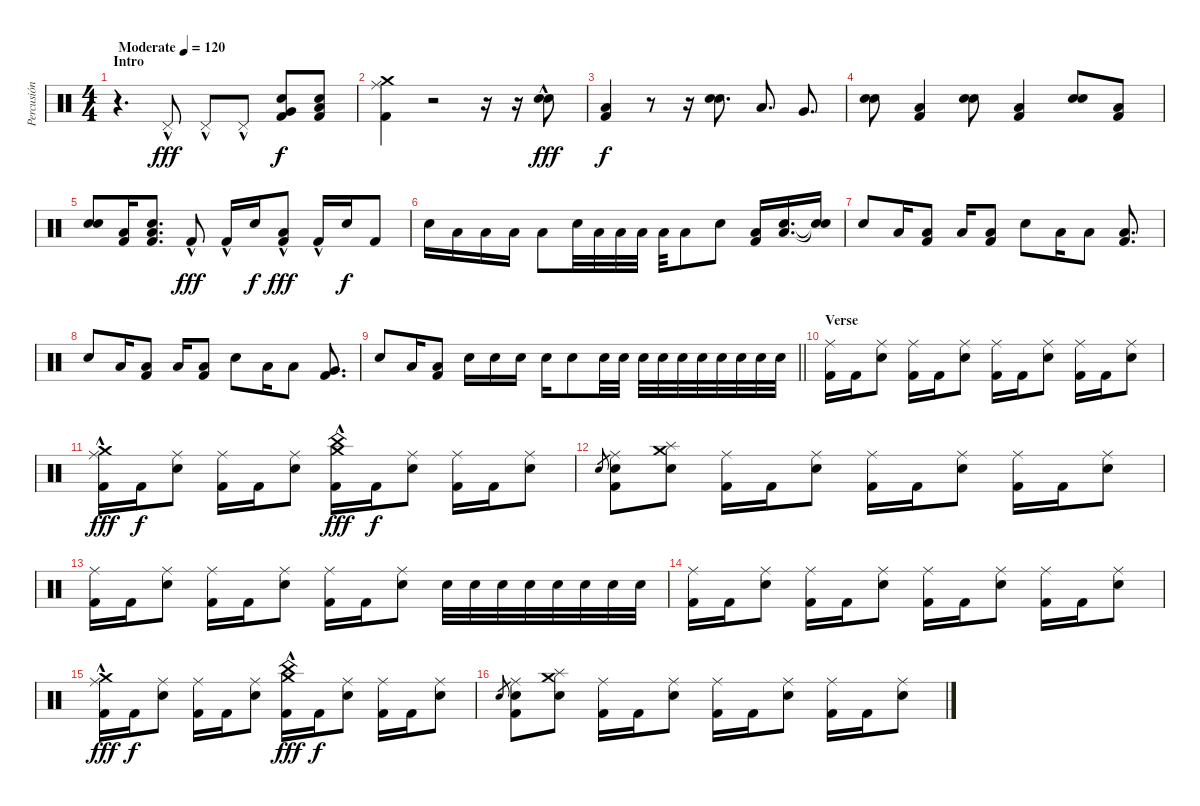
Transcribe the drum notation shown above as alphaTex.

\track ("Percusión" "Percusión") {instrument percussion}
\staff {score}
\articulation defaults
\ts (4 4)
\section ("" "Intro")
\tempo (120 "Moderate")
\clef neutral
\ks c
r.4{d dy fff} "Pedal Hi-Hat (hit)"{hac}.8 "Pedal Hi-Hat (hit)"{hac}.8 "Pedal Hi-Hat (hit)"{hac}.8 ("Very Low Tom (hit)" "Snare (hit) 2" "Kick (hit) 2").8{dy f} ("Low Tom (hit)" "Electric Snare (hit)" "Kick (hit) 2").8 |
("Ride (middle)" "Crash medium (hit)" "Kick (hit) 2").4 r.2 r.16 r.16 ("Electric Snare (hit)"{hac} "Snare (hit) 2").8{dy fff} |
("Low Tom (hit)" "Kick (hit) 2").4{dy f} r.8 r.16 ("Electric Snare (hit)" "Snare (hit) 2").8{d} "Low Floor Tom (hit)".8{d} "Very Low Tom (hit)".8{d} |
("Snare (hit) 2" "Electric Snare (hit)").8 ("Low Tom (hit)" "Kick (hit) 2").4 ("Snare (hit) 2" "Electric Snare (hit)").8 ("Low Tom (hit)" "Kick (hit) 2").4 ("Snare (hit) 2" "Electric Snare (hit)").8 ("Low Tom (hit)" "Kick (hit) 2").8 |
("Electric Snare (hit)" "Snare (hit) 2").8 ("Low Tom (hit)" "Kick (hit) 2").16 ("Low Floor Tom (hit)" "Electric Snare (hit)" "Kick (hit) 2").8{d} "Kick (hit) 2"{hac}.8{dy fff} "Kick (hit) 2"{hac}.16 "Electric Snare (hit)".16{dy f} ("Low Tom (hit)" "Kick (hit) 2"{hac}).8{dy fff} "Kick (hit) 2"{hac}.16 "Electric Snare (hit)".16{dy f} "Kick (hit) 2".8 |
"Electric Snare (hit)".16 "Low Tom (hit)".16 "Low Tom (hit)".16 "Low Tom (hit)".16 "Low Tom (hit)".8 "Electric Snare (hit)".32 "Low Tom (hit)".32 "Low Tom (hit)".32 "Low Tom (hit)".32 "Low Tom (hit)".32 "Low Tom (hit)".8 "Electric Snare (hit)".8 ("Low Tom (hit)" "Kick (hit) 2").16 ("Electric Snare (hit)" "Low Tom (hit)").16{d} ("Snare (hit)"{t} "Snare (hit)"{t}).16 |
"Electric Snare (hit)".8 "Low Tom (hit)".16 ("Low Tom (hit)" "Kick (hit) 2").8 "Low Tom (hit)".16 ("Low Tom (hit)" "Kick (hit) 2").8 "Electric Snare (hit)".8 "Low Tom (hit)".16 "Low Tom (hit)".8 ("Low Floor Tom (hit)" "Kick (hit) 2").8{d} |
"Electric Snare (hit)".8 "Low Tom (hit)".16 ("Low Tom (hit)" "Kick (hit) 2").8 "Low Tom (hit)".16 ("Low Tom (hit)" "Kick (hit) 2").8 "Electric Snare (hit)".8 "Low Tom (hit)".16 "Low Tom (hit)".8 ("Very Low Tom (hit)" "Kick (hit) 2").8{d} |
\barLineRight lightlight "Electric Snare (hit)".8 "Low Tom (hit)".16
("Low Tom (hit)" "Kick (hit) 2").8 "Electric Snare (hit)".16 "Electric Snare (hit)".16 "Electric Snare (hit)".16 "Electric Snare (hit)".16 "Electric Snare (hit)".8 "Electric Snare (hit)".32 "Electric Snare (hit)".32 "Electric Snare (hit)".32 "Electric Snare (hit)".32 "Electric Snare (hit)".32 "Electric Snare (hit)".32 "Electric Snare (hit)".32 "Electric Snare (hit)".32 "Electric Snare (hit)".32 "Electric Snare (hit)".32 |
\section ("" "Verse")
("Ride (middle)" "Kick (hit) 2").16 "Kick (hit) 2".16 ("Ride (middle)" "Electric Snare (hit)").8 ("Ride (middle)" "Kick (hit) 2").16 "Kick (hit) 2".16 ("Ride (middle)" "Electric Snare (hit)").8 ("Ride (middle)" "Kick (hit) 2").16 "Kick (hit) 2".16 ("Ride (middle)" "Electric Snare (hit)").8 ("Ride (middle)" "Kick (hit) 2").16 "Kick (hit) 2".16 ("Ride (middle)" "Electric Snare (hit)").8 |
("Crash medium (hit)"{hac} "Ride (middle)"{hac} "Kick (hit) 2").16{dy fff} "Kick (hit) 2".16{dy f} ("Ride (middle)" "Electric Snare (hit)").8 ("Ride (middle)" "Kick (hit) 2").16 "Kick (hit) 2".16 ("Ride (middle)" "Electric Snare (hit)").8 ("China (hit)"{hac} "Crash medium (hit)"{hac} "Kick (hit) 2").16{dy fff} "Kick (hit) 2".16{dy f} ("Ride (middle)" "Electric Snare (hit)").8 ("Ride (middle)" "Kick (hit) 2").16 "Kick (hit) 2".16 ("Ride (middle)" "Electric Snare (hit)").8 |
"Electric Snare (hit)".8{gr} ("Ride (middle)" "Electric Snare (hit)" "Kick (hit) 2").8 ("Crash medium (hit)" "Splash (hit)" "Snare (hit) 2").8 ("Ride (middle)" "Kick (hit) 2").16 "Kick (hit) 2".16 ("Ride (middle)" "Electric Snare (hit)").8 ("Ride (middle)" "Kick (hit) 2").16 "Kick (hit) 2".16 ("Ride (middle)" "Electric Snare (hit)").8 ("Ride (middle)" "Kick (hit) 2").16 "Kick (hit) 2".16 ("Ride (middle)" "Electric Snare (hit)").8 |
("Ride (middle)" "Kick (hit) 2").16 "Kick (hit) 2".16 ("Ride (middle)" "Electric Snare (hit)").8 ("Ride (middle)" "Kick (hit) 2").16 "Kick (hit) 2".16 ("Ride (middle)" "Electric Snare (hit)").8 ("Ride (middle)" "Kick (hit) 2").16 "Kick (hit) 2".16 ("Ride (middle)" "Electric Snare (hit)").8 "Electric Snare (hit)".32 "Electric Snare (hit)".32 "Electric Snare (hit)".32 "Electric Snare (hit)".32 "Electric Snare (hit)".32 "Electric Snare (hit)".32 "Electric Snare (hit)".32 "Electric Snare (hit)".32 |
("Ride (middle)" "Kick (hit) 2").16 "Kick (hit) 2".16 ("Ride (middle)" "Electric Snare (hit)").8 ("Ride (middle)" "Kick (hit) 2").16 "Kick (hit) 2".16 ("Ride (middle)" "Electric Snare (hit)").8 ("Ride (middle)" "Kick (hit) 2").16 "Kick (hit) 2".16 ("Ride (middle)" "Electric Snare (hit)").8 ("Ride (middle)" "Kick (hit) 2").16 "Kick (hit) 2".16 ("Ride (middle)" "Electric Snare (hit)").8 |
("Crash medium (hit)"{hac} "Ride (middle)"{hac} "Kick (hit) 2").16{dy fff} "Kick (hit) 2".16{dy f} ("Ride (middle)" "Electric Snare (hit)").8 ("Ride (middle)" "Kick (hit) 2").16 "Kick (hit) 2".16 ("Ride (middle)" "Electric Snare (hit)").8 ("China (hit)"{hac} "Crash medium (hit)"{hac} "Kick (hit) 2").16{dy fff} "Kick (hit) 2".16{dy f} ("Ride (middle)" "Electric Snare (hit)").8 ("Ride (middle)" "Kick (hit) 2").16 "Kick (hit) 2".16 ("Ride (middle)" "Electric Snare (hit)").8 |
"Electric Snare (hit)".8{gr} ("Ride (middle)" "Electric Snare (hit)" "Kick (hit) 2").8 ("Crash medium (hit)" "Splash (hit)" "Snare (hit) 2").8 ("Ride (middle)" "Kick (hit) 2").16 "Kick (hit) 2".16 ("Ride (middle)" "Electric Snare (hit)").8 ("Ride (middle)" "Kick (hit) 2").16 "Kick (hit) 2".16 ("Ride (middle)" "Electric Snare (hit)").8 ("Ride (middle)" "Kick (hit) 2").16 "Kick (hit) 2".16 ("Ride (middle)" "Electric Snare (hit)").8
